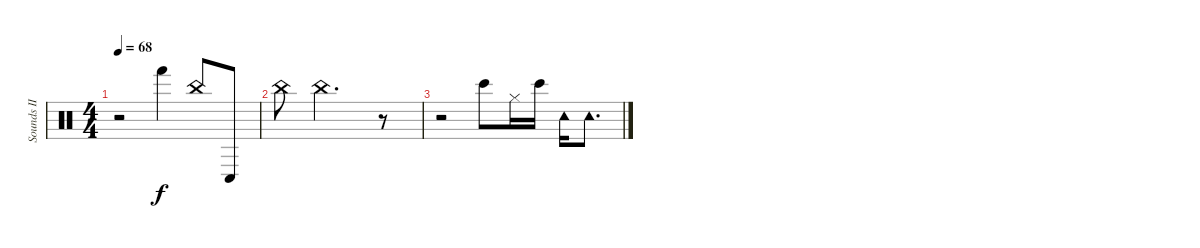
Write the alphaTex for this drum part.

\track ("Sounds II (Generic)" "Sounds II ") {instrument percussion}
\staff {score}
\articulation defaults
\ts (4 4)
\tempo 68
\clef neutral
\ks c
r.2{dy f} "Hand (hit)".4 "China (hit)".8 "Conga low (hit)".8 |
"China (hit)".8 "China (hit)".2{d} r.8 |
r.2 "Bongo High (hit)".8 "Hi-Hat (closed)".16 "Bongo High (hit)".16 "Tambourine (hit)".16 "Tambourine (hit)".8{d}
